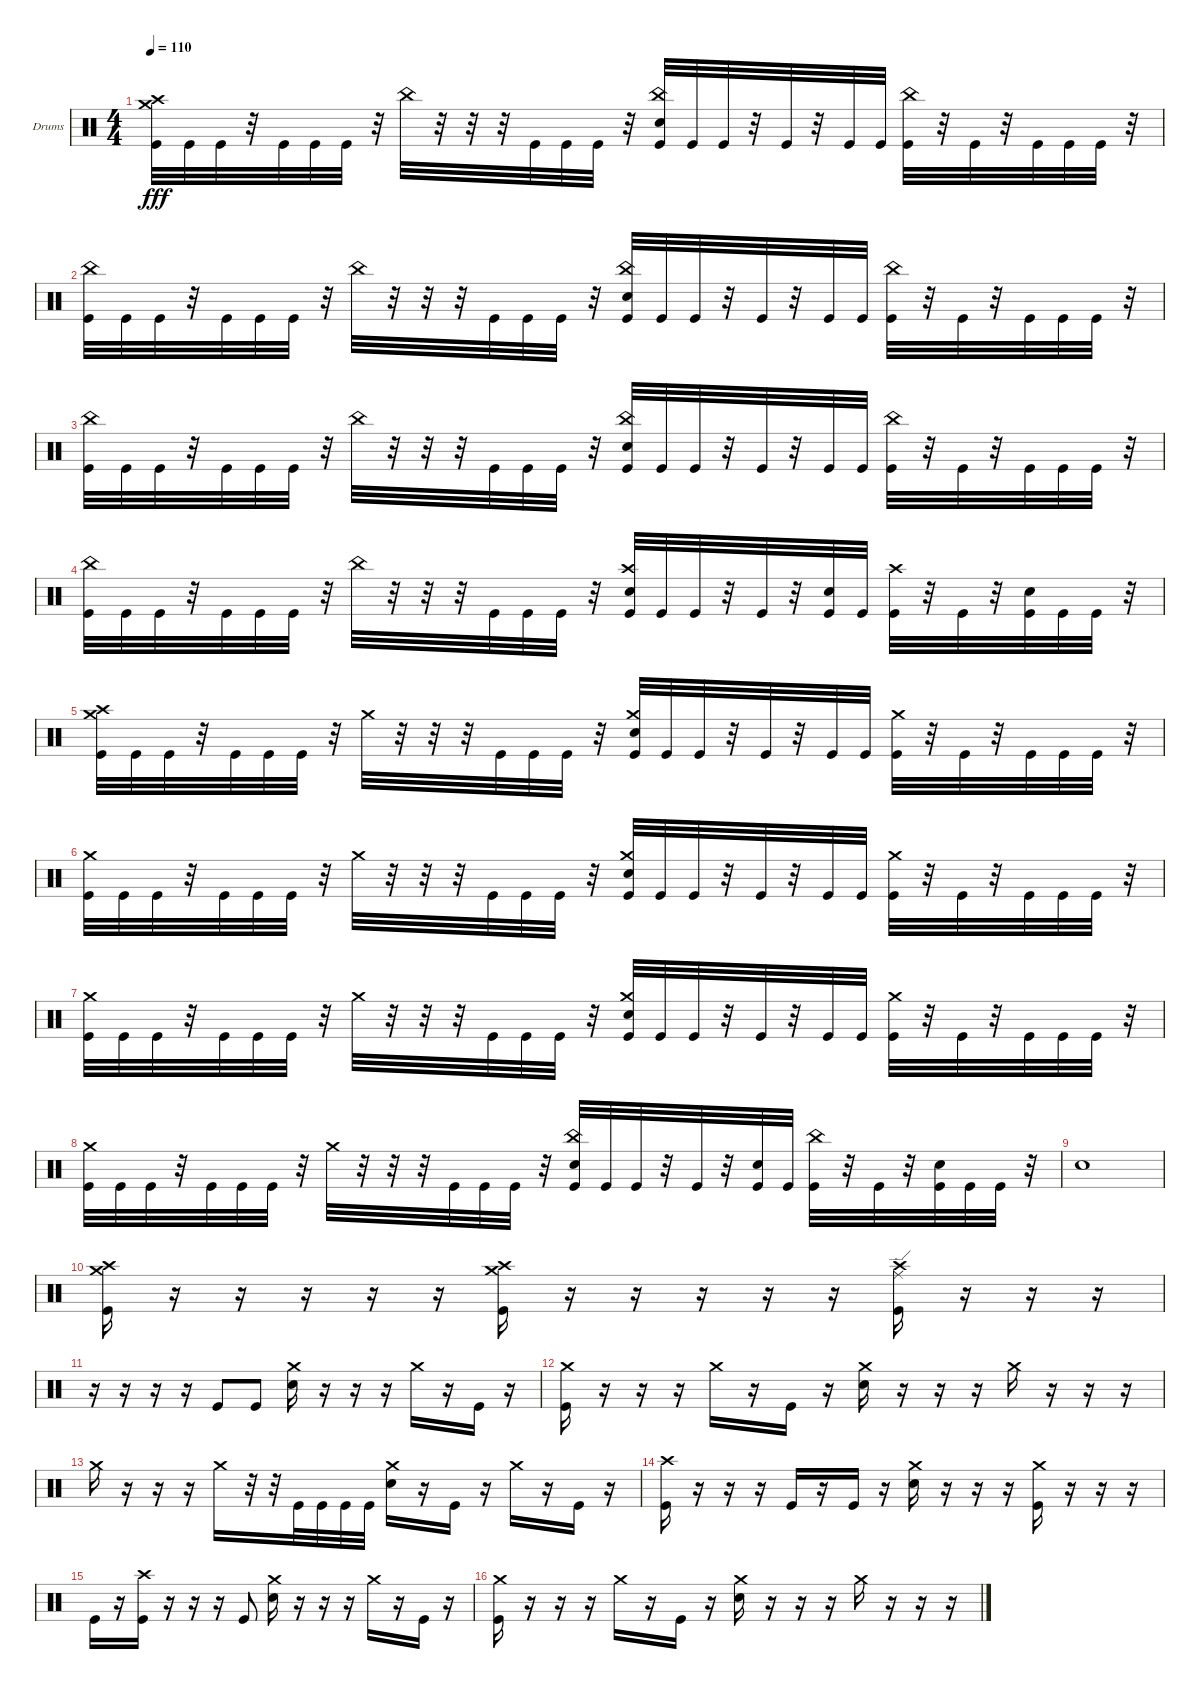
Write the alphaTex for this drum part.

\bracketExtendMode groupsimilarinstruments
\firstSystemTrackNameOrientation horizontal
\otherSystemsTrackNameOrientation horizontal
\track ("Drumkit" "Drums") {instrument percussion}
\staff {score}
\articulation defaults
\ts (4 4)
\tempo 110
\clef neutral
\ks c
("Kick (hit)" "Crash high (hit)" "Crash medium (hit)").32{dy fff} "Kick (hit)".32 "Kick (hit)".32 r.32 "Kick (hit)".32 "Kick (hit)".32 "Kick (hit)".32 r.32 "China (hit)".32 r.32 r.32 r.32 "Kick (hit)".32 "Kick (hit)".32 "Kick (hit)".32 r.32 ("Kick (hit)" "Snare (hit) 2" "China (hit)").32 "Kick (hit)".32 "Kick (hit)".32 r.32 "Kick (hit)".32 r.32 "Kick (hit)".32 "Kick (hit)".32 ("Kick (hit)" "China (hit)").32 r.32 "Kick (hit)".32 r.32 "Kick (hit)".32 "Kick (hit)".32 "Kick (hit)".32 r.32 |
("Kick (hit)" "China (hit)").32 "Kick (hit)".32 "Kick (hit)".32 r.32 "Kick (hit)".32 "Kick (hit)".32 "Kick (hit)".32 r.32 "China (hit)".32 r.32 r.32 r.32 "Kick (hit)".32 "Kick (hit)".32 "Kick (hit)".32 r.32 ("Kick (hit)" "Snare (hit) 2" "China (hit)").32 "Kick (hit)".32 "Kick (hit)".32 r.32 "Kick (hit)".32 r.32 "Kick (hit)".32 "Kick (hit)".32 ("Kick (hit)" "China (hit)").32 r.32 "Kick (hit)".32 r.32 "Kick (hit)".32 "Kick (hit)".32 "Kick (hit)".32 r.32 |
("Kick (hit)" "China (hit)").32 "Kick (hit)".32 "Kick (hit)".32 r.32 "Kick (hit)".32 "Kick (hit)".32 "Kick (hit)".32 r.32 "China (hit)".32 r.32 r.32 r.32 "Kick (hit)".32 "Kick (hit)".32 "Kick (hit)".32 r.32 ("Kick (hit)" "Snare (hit) 2" "China (hit)").32 "Kick (hit)".32 "Kick (hit)".32 r.32 "Kick (hit)".32 r.32 "Kick (hit)".32 "Kick (hit)".32 ("Kick (hit)" "China (hit)").32 r.32 "Kick (hit)".32 r.32 "Kick (hit)".32 "Kick (hit)".32 "Kick (hit)".32 r.32 |
("Kick (hit)" "China (hit)").32 "Kick (hit)".32 "Kick (hit)".32 r.32 "Kick (hit)".32 "Kick (hit)".32 "Kick (hit)".32 r.32 "China (hit)".32 r.32 r.32 r.32 "Kick (hit)".32 "Kick (hit)".32 "Kick (hit)".32 r.32 ("Kick (hit)" "Snare (hit) 2" "Crash high (hit)").32 "Kick (hit)".32 "Kick (hit)".32 r.32 "Kick (hit)".32 r.32 ("Kick (hit)" "Snare (hit) 2").32 "Kick (hit)".32 ("Kick (hit)" "Crash high (hit)").32 r.32 "Kick (hit)".32 r.32 ("Kick (hit)" "Snare (hit) 2").32 "Kick (hit)".32 "Kick (hit)".32 r.32 |
("Kick (hit)" "Crash high (hit)" "Crash medium (hit)").32 "Kick (hit)".32 "Kick (hit)".32 r.32 "Kick (hit)".32 "Kick (hit)".32 "Kick (hit)".32 r.32 "Crash medium (hit)".32 r.32 r.32 r.32 "Kick (hit)".32 "Kick (hit)".32 "Kick (hit)".32 r.32 ("Kick (hit)" "Snare (hit) 2" "Crash medium (hit)").32 "Kick (hit)".32 "Kick (hit)".32 r.32 "Kick (hit)".32 r.32 "Kick (hit)".32 "Kick (hit)".32 ("Kick (hit)" "Crash medium (hit)").32 r.32 "Kick (hit)".32 r.32 "Kick (hit)".32 "Kick (hit)".32 "Kick (hit)".32 r.32 |
("Kick (hit)" "Crash medium (hit)").32 "Kick (hit)".32 "Kick (hit)".32 r.32 "Kick (hit)".32 "Kick (hit)".32 "Kick (hit)".32 r.32 "Crash medium (hit)".32 r.32 r.32 r.32 "Kick (hit)".32 "Kick (hit)".32 "Kick (hit)".32 r.32 ("Kick (hit)" "Snare (hit) 2" "Crash medium (hit)").32 "Kick (hit)".32 "Kick (hit)".32 r.32 "Kick (hit)".32 r.32 "Kick (hit)".32 "Kick (hit)".32 ("Kick (hit)" "Crash medium (hit)").32 r.32 "Kick (hit)".32 r.32 "Kick (hit)".32 "Kick (hit)".32 "Kick (hit)".32 r.32 |
("Kick (hit)" "Crash medium (hit)").32 "Kick (hit)".32 "Kick (hit)".32 r.32 "Kick (hit)".32 "Kick (hit)".32 "Kick (hit)".32 r.32 "Crash medium (hit)".32 r.32 r.32 r.32 "Kick (hit)".32 "Kick (hit)".32 "Kick (hit)".32 r.32 ("Kick (hit)" "Snare (hit) 2" "Crash medium (hit)").32 "Kick (hit)".32 "Kick (hit)".32 r.32 "Kick (hit)".32 r.32 "Kick (hit)".32 "Kick (hit)".32 ("Kick (hit)" "Crash medium (hit)").32 r.32 "Kick (hit)".32 r.32 "Kick (hit)".32 "Kick (hit)".32 "Kick (hit)".32 r.32 |
("Kick (hit)" "Crash medium (hit)").32 "Kick (hit)".32 "Kick (hit)".32 r.32 "Kick (hit)".32 "Kick (hit)".32 "Kick (hit)".32 r.32 "Crash medium (hit)".32 r.32 r.32 r.32 "Kick (hit)".32 "Kick (hit)".32 "Kick (hit)".32 r.32 ("Kick (hit)" "Snare (hit) 2" "China (hit)").32 "Kick (hit)".32 "Kick (hit)".32 r.32 "Kick (hit)".32 r.32 ("Kick (hit)" "Snare (hit) 2").32 "Kick (hit)".32 ("Kick (hit)" "China (hit)").32 r.32 "Kick (hit)".32 r.32 ("Kick (hit)" "Snare (hit) 2").32 "Kick (hit)".32 "Kick (hit)".32 r.32 |
"Snare (hit) 2".1 |
("Kick (hit)" "Crash high (hit)" "Crash medium (hit)").16 r.16 r.16 r.16 r.16 r.16 ("Kick (hit)" "Crash high (hit)" "Crash medium (hit)").16 r.16 r.16 r.16 r.16 r.16 ("Kick (hit)" "Crash high (hit)" "Ride (edge)").16 r.16 r.16 r.16 |
r.16 r.16 r.16 r.16 "Kick (hit)".8 "Kick (hit)".8 ("Snare (hit) 2" "Crash medium (hit)").16 r.16 r.16 r.16 "Crash medium (hit)".16 r.16 "Kick (hit)".16 r.16 |
("Kick (hit)" "Crash medium (hit)").16 r.16 r.16 r.16 "Crash medium (hit)".16 r.16 "Kick (hit)".16 r.16 ("Crash medium (hit)" "Snare (hit) 2").16 r.16 r.16 r.16 "Crash medium (hit)".16 r.16 r.16 r.16 |
"Crash medium (hit)".16 r.16 r.16 r.16 "Crash medium (hit)".16 r.32 r.32 "Kick (hit)".32 "Kick (hit)".32 "Kick (hit)".32 "Kick (hit)".32 ("Snare (hit) 2" "Crash medium (hit)").16 r.16 "Kick (hit)".16 r.16 "Crash medium (hit)".16 r.16 "Kick (hit)".16 r.16 |
("Kick (hit)" "Crash high (hit)").16 r.16 r.16 r.16 "Kick (hit)".16 r.16 "Kick (hit)".16 r.16 ("Crash medium (hit)" "Snare (hit) 2").16 r.16 r.16 r.16 ("Crash medium (hit)" "Kick (hit)").16 r.16 r.16 r.16 |
"Kick (hit)".16 r.16 ("Kick (hit)" "Crash high (hit)").16 r.16 r.16 r.16 "Kick (hit)".8 ("Snare (hit) 2" "Crash medium (hit)").16 r.16 r.16 r.16 "Crash medium (hit)".16 r.16 "Kick (hit)".16 r.16 |
("Kick (hit)" "Crash medium (hit)").16 r.16 r.16 r.16 "Crash medium (hit)".16 r.16 "Kick (hit)".16 r.16 ("Crash medium (hit)" "Snare (hit) 2").16 r.16 r.16 r.16 "Crash medium (hit)".16 r.16 r.16 r.16
